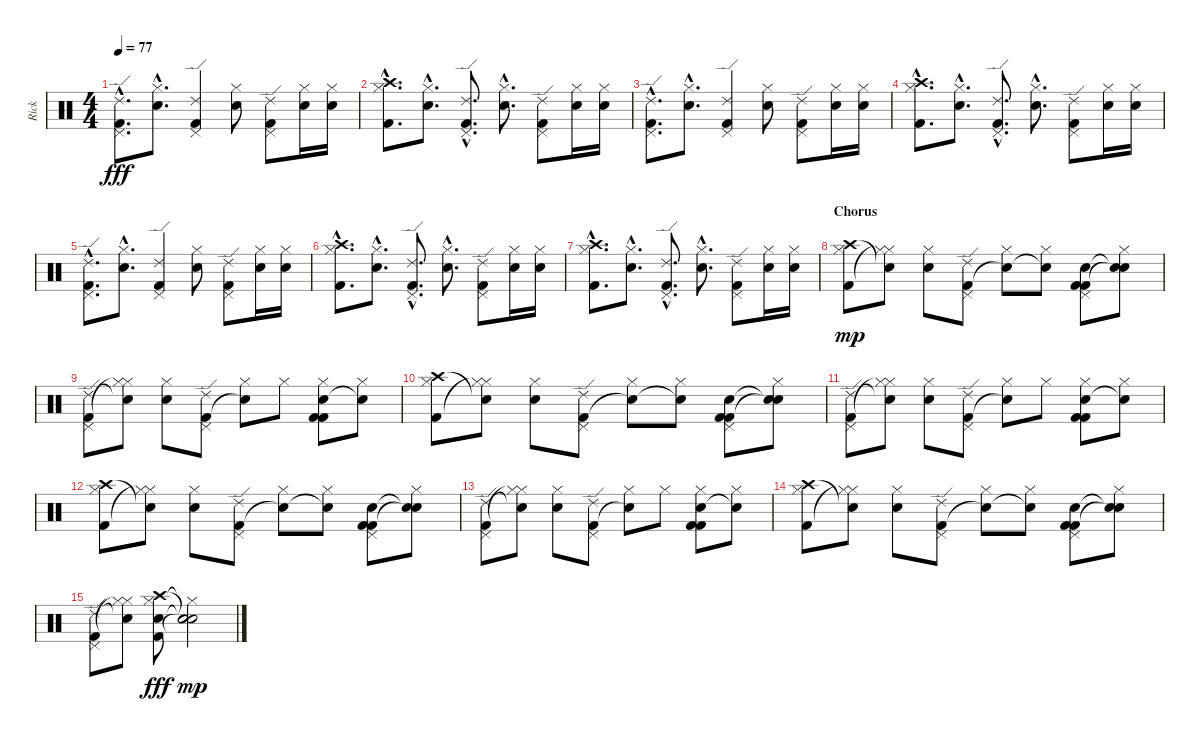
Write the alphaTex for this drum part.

\track ("Rick" "Rick") {instrument percussion}
\staff {score}
\articulation defaults
\ts (4 4)
\tempo 77
\clef neutral
\ks c
("Pedal Hi-Hat (hit)"{hac} "Kick (hit) 2"{hac} "Ride (edge) 2"{hac}).8{d dy fff} ("Hi-Hat (closed)"{hac} "Electric Snare (hit)"{hac}).8{d} ("Pedal Hi-Hat (hit)" "Kick (hit) 2" "Ride (edge) 2").4 ("Hi-Hat (closed)" "Electric Snare (hit)").8 ("Pedal Hi-Hat (hit)" "Kick (hit) 2" "Ride (edge) 2").8 ("Hi-Hat (closed)" "Electric Snare (hit)").16 ("Hi-Hat (closed)" "Electric Snare (hit)").16 |
("Hi-Hat (closed)"{hac} "Kick (hit) 2"{hac} "Crash high (hit)"{hac}).8{d} ("Hi-Hat (closed)"{hac} "Electric Snare (hit)"{hac}).8{d} ("Pedal Hi-Hat (hit)"{hac} "Kick (hit) 2"{hac} "Ride (edge) 2"{hac}).8{d} ("Hi-Hat (closed)"{hac} "Electric Snare (hit)"{hac}).8{d} ("Pedal Hi-Hat (hit)" "Kick (hit) 2" "Ride (edge) 2").8 ("Hi-Hat (closed)" "Electric Snare (hit)").16 ("Hi-Hat (closed)" "Electric Snare (hit)").16 |
("Pedal Hi-Hat (hit)"{hac} "Kick (hit) 2"{hac} "Ride (edge) 2"{hac}).8{d} ("Hi-Hat (closed)"{hac} "Electric Snare (hit)"{hac}).8{d} ("Pedal Hi-Hat (hit)" "Kick (hit) 2" "Ride (edge) 2").4 ("Hi-Hat (closed)" "Electric Snare (hit)").8 ("Pedal Hi-Hat (hit)" "Kick (hit) 2" "Ride (edge) 2").8 ("Hi-Hat (closed)" "Electric Snare (hit)").16 ("Hi-Hat (closed)" "Electric Snare (hit)").16 |
("Hi-Hat (closed)"{hac} "Kick (hit) 2"{hac} "Crash high (hit)"{hac}).8{d} ("Hi-Hat (closed)"{hac} "Electric Snare (hit)"{hac}).8{d} ("Pedal Hi-Hat (hit)"{hac} "Kick (hit) 2"{hac} "Ride (edge) 2"{hac}).8{d} ("Hi-Hat (closed)"{hac} "Electric Snare (hit)"{hac}).8{d} ("Pedal Hi-Hat (hit)" "Kick (hit) 2" "Ride (edge) 2").8 ("Hi-Hat (closed)" "Electric Snare (hit)").16 ("Hi-Hat (closed)" "Electric Snare (hit)").16 |
("Pedal Hi-Hat (hit)"{hac} "Kick (hit) 2"{hac} "Ride (edge) 2"{hac}).8{d} ("Hi-Hat (closed)"{hac} "Electric Snare (hit)"{hac}).8{d} ("Pedal Hi-Hat (hit)" "Kick (hit) 2" "Ride (edge) 2").4 ("Hi-Hat (closed)" "Electric Snare (hit)").8 ("Pedal Hi-Hat (hit)" "Kick (hit) 2" "Ride (edge) 2").8 ("Hi-Hat (closed)" "Electric Snare (hit)").16 ("Hi-Hat (closed)" "Electric Snare (hit)").16 |
("Hi-Hat (closed)"{hac} "Kick (hit) 2"{hac} "Crash high (hit)"{hac}).8{d} ("Hi-Hat (closed)"{hac} "Electric Snare (hit)"{hac}).8{d} ("Pedal Hi-Hat (hit)"{hac} "Kick (hit) 2"{hac} "Ride (edge) 2"{hac}).8{d} ("Hi-Hat (closed)"{hac} "Electric Snare (hit)"{hac}).8{d} ("Pedal Hi-Hat (hit)" "Kick (hit) 2" "Ride (edge) 2").8 ("Hi-Hat (closed)" "Electric Snare (hit)").16 ("Hi-Hat (closed)" "Electric Snare (hit)").16 |
("Hi-Hat (closed)"{hac} "Kick (hit) 2"{hac} "Crash high (hit)"{hac}).8{d} ("Hi-Hat (closed)"{hac} "Electric Snare (hit)"{hac}).8{d} ("Pedal Hi-Hat (hit)"{hac} "Kick (hit) 2"{hac} "Ride (edge) 2"{hac}).8{d} ("Hi-Hat (closed)"{hac} "Electric Snare (hit)"{hac}).8{d} ("Pedal Hi-Hat (hit)" "Kick (hit) 2" "Ride (edge) 2").8 ("Hi-Hat (closed)" "Electric Snare (hit)").16 ("Hi-Hat (closed)" "Electric Snare (hit)").16 |
\section ("" "Chorus")
("Hi-Hat (closed)" "Kick (hit) 2" "Crash high (hit)").8{dy mp} ("Hi-Hat (closed)" "Hi-Hat (closed)"{t} "Snare (hit)"{t}).8 ("Hi-Hat (closed)" "Electric Snare (hit)").8 ("Pedal Hi-Hat (hit)" "Kick (hit) 2" "Ride (edge) 2").8 ("Hi-Hat (closed)" "Snare (hit)"{t}).8 ("Hi-Hat (closed)" "Snare (hit)"{t}).8 ("Pedal Hi-Hat (hit)" "Electric Snare (hit)" "Kick (hit) 2" "Kick (hit) 2").8 ("Hi-Hat (closed)" "Snare (hit)"{t} "Snare (hit)"{t}).8 |
("Pedal Hi-Hat (hit)" "Kick (hit) 2" "Ride (edge) 2").8 ("Hi-Hat (closed)" "Hi-Hat (closed)"{t} "Snare (hit)"{t}).8 ("Hi-Hat (closed)" "Electric Snare (hit)").8 ("Pedal Hi-Hat (hit)" "Kick (hit) 2" "Ride (edge) 2").8 ("Hi-Hat (closed)" "Snare (hit)"{t}).8 "Hi-Hat (closed)".8 ("Hi-Hat (closed)" "Electric Snare (hit)" "Kick (hit) 2" "Kick (hit) 2").8 ("Hi-Hat (closed)" "Snare (hit)"{t}).8 |
("Hi-Hat (closed)" "Kick (hit) 2" "Crash high (hit)").8 ("Hi-Hat (closed)" "Hi-Hat (closed)"{t} "Snare (hit)"{t}).8 ("Hi-Hat (closed)" "Electric Snare (hit)").8 ("Pedal Hi-Hat (hit)" "Kick (hit) 2" "Ride (edge) 2").8 ("Hi-Hat (closed)" "Snare (hit)"{t}).8 ("Hi-Hat (closed)" "Snare (hit)"{t}).8 ("Pedal Hi-Hat (hit)" "Electric Snare (hit)" "Kick (hit) 2" "Kick (hit) 2").8 ("Hi-Hat (closed)" "Snare (hit)"{t} "Snare (hit)"{t}).8 |
("Pedal Hi-Hat (hit)" "Kick (hit) 2" "Ride (edge) 2").8 ("Hi-Hat (closed)" "Hi-Hat (closed)"{t} "Snare (hit)"{t}).8 ("Hi-Hat (closed)" "Electric Snare (hit)").8 ("Pedal Hi-Hat (hit)" "Kick (hit) 2" "Ride (edge) 2").8 ("Hi-Hat (closed)" "Snare (hit)"{t}).8 "Hi-Hat (closed)".8 ("Hi-Hat (closed)" "Electric Snare (hit)" "Kick (hit) 2" "Kick (hit) 2").8 ("Hi-Hat (closed)" "Snare (hit)"{t}).8 |
("Hi-Hat (closed)" "Kick (hit) 2" "Crash high (hit)").8 ("Hi-Hat (closed)" "Hi-Hat (closed)"{t} "Snare (hit)"{t}).8 ("Hi-Hat (closed)" "Electric Snare (hit)").8 ("Pedal Hi-Hat (hit)" "Kick (hit) 2" "Ride (edge) 2").8 ("Hi-Hat (closed)" "Snare (hit)"{t}).8 ("Hi-Hat (closed)" "Snare (hit)"{t}).8 ("Pedal Hi-Hat (hit)" "Electric Snare (hit)" "Kick (hit) 2" "Kick (hit) 2").8 ("Hi-Hat (closed)" "Snare (hit)"{t} "Snare (hit)"{t}).8 |
("Pedal Hi-Hat (hit)" "Kick (hit) 2" "Ride (edge) 2").8 ("Hi-Hat (closed)" "Hi-Hat (closed)"{t} "Snare (hit)"{t}).8 ("Hi-Hat (closed)" "Electric Snare (hit)").8 ("Pedal Hi-Hat (hit)" "Kick (hit) 2" "Ride (edge) 2").8 ("Hi-Hat (closed)" "Snare (hit)"{t}).8 "Hi-Hat (closed)".8 ("Hi-Hat (closed)" "Electric Snare (hit)" "Kick (hit) 2" "Kick (hit) 2").8 ("Hi-Hat (closed)" "Snare (hit)"{t}).8 |
("Hi-Hat (closed)" "Kick (hit) 2" "Crash high (hit)").8 ("Hi-Hat (closed)" "Hi-Hat (closed)"{t} "Snare (hit)"{t}).8 ("Hi-Hat (closed)" "Electric Snare (hit)").8 ("Pedal Hi-Hat (hit)" "Kick (hit) 2" "Ride (edge) 2").8 ("Hi-Hat (closed)" "Snare (hit)"{t}).8 ("Hi-Hat (closed)" "Snare (hit)"{t}).8 ("Pedal Hi-Hat (hit)" "Electric Snare (hit)" "Kick (hit) 2" "Kick (hit) 2").8 ("Hi-Hat (closed)" "Snare (hit)"{t} "Snare (hit)"{t}).8 |
("Pedal Hi-Hat (hit)" "Kick (hit) 2" "Ride (edge) 2").8 ("Hi-Hat (closed)" "Hi-Hat (closed)"{t} "Snare (hit)"{t}).8 ("Hi-Hat (closed)" "Electric Snare (hit)" "Kick (hit) 2" "Crash high (hit)").8{dy fff} ("Hi-Hat (closed)"{t} "Electric Snare (hit)"{t} "Snare (hit)"{t} "Snare (hit)"{t}).2{dy mp}
